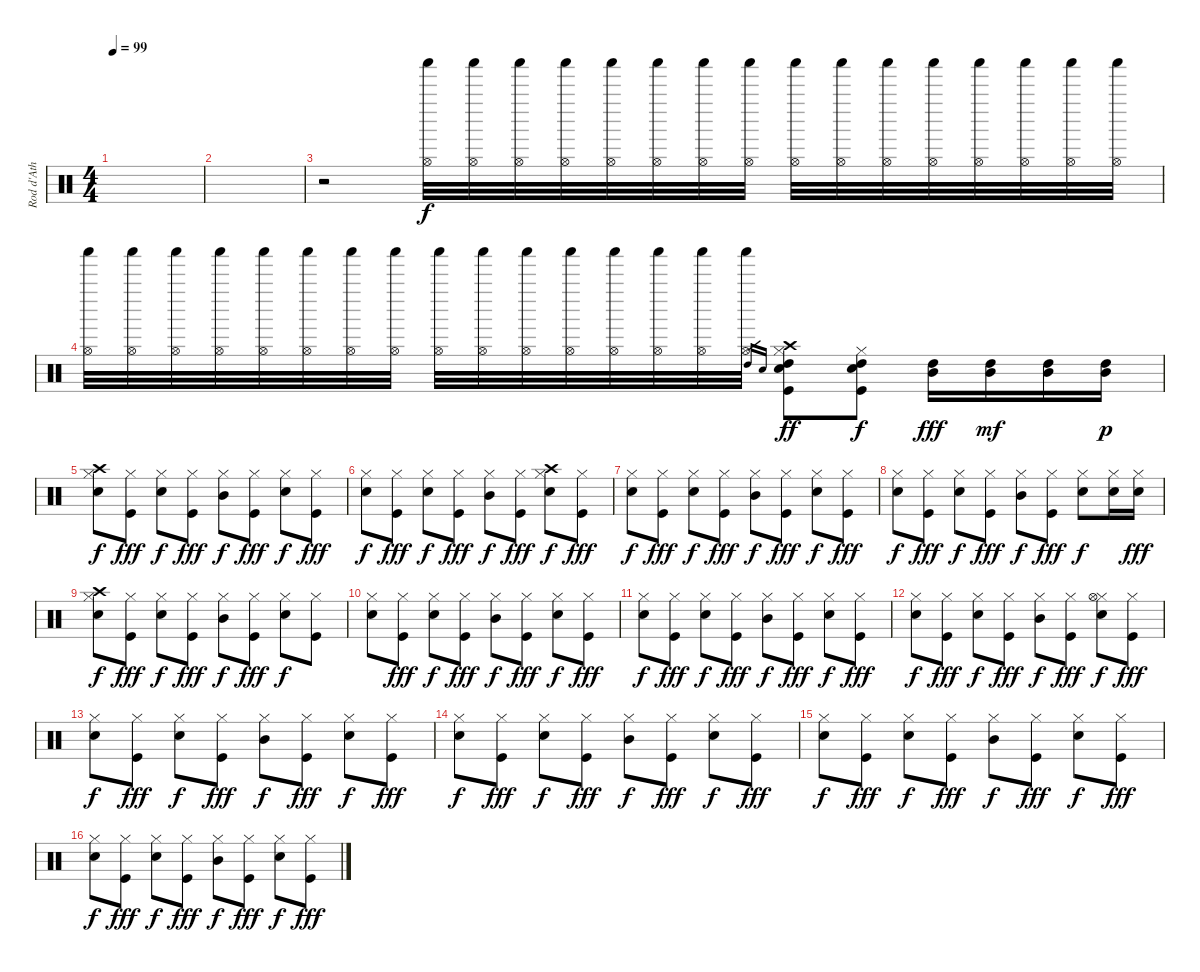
\track ("Rod d'Ath" "Rod d'Ath") {instrument percussion}
\staff {score}
\articulation defaults
\ts (4 4)
\tempo 99
\clef neutral
\ks c
|
|
r.2 ("Shaker (hit)" "Hi-Hat (open)").32{volume 1 balance 8} ("Shaker (hit)" "Hi-Hat (open)").32{volume 16 balance 0} ("Shaker (hit)" "Hi-Hat (open)").32 ("Shaker (hit)" "Hi-Hat (open)").32 ("Shaker (hit)" "Hi-Hat (open)").32 ("Shaker (hit)" "Hi-Hat (open)").32 ("Shaker (hit)" "Hi-Hat (open)").32 ("Shaker (hit)" "Hi-Hat (open)").32 ("Shaker (hit)" "Hi-Hat (open)").32 ("Shaker (hit)" "Hi-Hat (open)").32 ("Shaker (hit)" "Hi-Hat (open)").32 ("Shaker (hit)" "Hi-Hat (open)").32 ("Shaker (hit)" "Hi-Hat (open)").32 ("Shaker (hit)" "Hi-Hat (open)").32 ("Shaker (hit)" "Hi-Hat (open)").32 ("Shaker (hit)" "Hi-Hat (open)").32 |
("Shaker (hit)" "Hi-Hat (open)").32{balance 16} ("Shaker (hit)" "Hi-Hat (open)").32 ("Shaker (hit)" "Hi-Hat (open)").32 ("Shaker (hit)" "Hi-Hat (open)").32 ("Shaker (hit)" "Hi-Hat (open)").32 ("Shaker (hit)" "Hi-Hat (open)").32 ("Shaker (hit)" "Hi-Hat (open)").32 ("Shaker (hit)" "Hi-Hat (open)").32 ("Shaker (hit)" "Hi-Hat (open)").32 ("Shaker (hit)" "Hi-Hat (open)").32 ("Shaker (hit)" "Hi-Hat (open)").32 ("Shaker (hit)" "Hi-Hat (open)").32 ("Shaker (hit)" "Hi-Hat (open)").32 ("Shaker (hit)" "Hi-Hat (open)").32 ("Shaker (hit)" "Hi-Hat (open)").32 ("Shaker (hit)" "Hi-Hat (open)").32 "High Tom (hit)".16{gr} "Electric Snare (hit)".16{gr} ("Electric Snare (hit)" "Kick (hit)" "High Tom (hit)" "Crash high (hit)" "Hi-Hat (closed)").8{dy ff} ("Electric Snare (hit)" "Kick (hit)" "High Tom (hit)" "Hi-Hat (closed)").8{dy f} ("Mid Tom (hit)" "High Tom (hit)").16{dy fff} ("Mid Tom (hit)" "High Tom (hit)").16{dy mf} ("Mid Tom (hit)" "High Tom (hit)").16 ("Mid Tom (hit)" "High Tom (hit)").16{dy p} |
("Hi-Hat (closed)" "Snare (hit) 2" "Crash high (hit)").8{dy f} ("Hi-Hat (closed)" "Kick (hit)").8{dy fff} ("Hi-Hat (closed)" "Snare (hit) 2").8{dy f} ("Hi-Hat (closed)" "Kick (hit)").8{dy fff} ("Hi-Hat (closed)" "Mid Tom (hit)").8{dy f} ("Hi-Hat (closed)" "Kick (hit)").8{dy fff} ("Hi-Hat (closed)" "Snare (hit) 2").8{dy f} ("Hi-Hat (closed)" "Kick (hit)").8{dy fff} |
("Hi-Hat (closed)" "Snare (hit) 2").8{dy f} ("Hi-Hat (closed)" "Kick (hit)").8{dy fff} ("Hi-Hat (closed)" "Snare (hit) 2").8{dy f} ("Hi-Hat (closed)" "Kick (hit)").8{dy fff} ("Hi-Hat (closed)" "Mid Tom (hit)").8{dy f} ("Hi-Hat (closed)" "Kick (hit)").8{dy fff} ("Hi-Hat (closed)" "Snare (hit) 2" "Crash high (hit)").8{dy f} ("Hi-Hat (closed)" "Kick (hit)").8{dy fff} |
("Hi-Hat (closed)" "Snare (hit) 2").8{dy f} ("Hi-Hat (closed)" "Kick (hit)").8{dy fff} ("Hi-Hat (closed)" "Snare (hit) 2").8{dy f} ("Hi-Hat (closed)" "Kick (hit)").8{dy fff} ("Hi-Hat (closed)" "Mid Tom (hit)").8{dy f} ("Hi-Hat (closed)" "Kick (hit)").8{dy fff} ("Hi-Hat (closed)" "Snare (hit) 2").8{dy f} ("Hi-Hat (closed)" "Kick (hit)").8{dy fff} |
("Hi-Hat (closed)" "Snare (hit) 2").8{dy f} ("Hi-Hat (closed)" "Kick (hit)").8{dy fff} ("Hi-Hat (closed)" "Snare (hit) 2").8{dy f} ("Hi-Hat (closed)" "Kick (hit)").8{dy fff} ("Hi-Hat (closed)" "Mid Tom (hit)").8{dy f} ("Hi-Hat (closed)" "Kick (hit)").8{dy fff} ("Hi-Hat (closed)" "Snare (hit) 2").8{dy f} ("Hi-Hat (closed)" "Snare (hit) 2").16 ("Hi-Hat (closed)" "Snare (hit) 2").16{dy fff} |
("Hi-Hat (closed)" "Snare (hit) 2" "Crash high (hit)").8{dy f} ("Hi-Hat (closed)" "Kick (hit)").8{dy fff} ("Hi-Hat (closed)" "Snare (hit) 2").8{dy f} ("Hi-Hat (closed)" "Kick (hit)").8{dy fff} ("Hi-Hat (closed)" "Mid Tom (hit)").8{dy f} ("Hi-Hat (closed)" "Kick (hit)").8{dy fff} ("Hi-Hat (closed)" "Snare (hit) 2").8{dy f} ("Hi-Hat (closed)" "Kick (hit)").8 |
("Hi-Hat (closed)" "Snare (hit) 2").8 ("Hi-Hat (closed)" "Kick (hit)").8{dy fff} ("Hi-Hat (closed)" "Snare (hit) 2").8{dy f} ("Hi-Hat (closed)" "Kick (hit)").8{dy fff} ("Hi-Hat (closed)" "Mid Tom (hit)").8{dy f} ("Hi-Hat (closed)" "Kick (hit)").8{dy fff} ("Hi-Hat (closed)" "Snare (hit) 2").8{dy f} ("Hi-Hat (closed)" "Kick (hit)").8{dy fff} |
("Hi-Hat (closed)" "Snare (hit) 2").8{dy f} ("Hi-Hat (closed)" "Kick (hit)").8{dy fff} ("Hi-Hat (closed)" "Snare (hit) 2").8{dy f} ("Hi-Hat (closed)" "Kick (hit)").8{dy fff} ("Hi-Hat (closed)" "Mid Tom (hit)").8{dy f} ("Hi-Hat (closed)" "Kick (hit)").8{dy fff} ("Hi-Hat (closed)" "Snare (hit) 2").8{dy f} ("Hi-Hat (closed)" "Kick (hit)").8{dy fff} |
("Hi-Hat (closed)" "Snare (hit) 2").8{dy f} ("Hi-Hat (closed)" "Kick (hit)").8{dy fff} ("Hi-Hat (closed)" "Snare (hit) 2").8{dy f} ("Hi-Hat (closed)" "Kick (hit)").8{dy fff} ("Hi-Hat (closed)" "Mid Tom (hit)").8{dy f} ("Hi-Hat (closed)" "Kick (hit)").8{dy fff} ("Hi-Hat (closed)" "Snare (hit) 2" "Hi-Hat (open)").8{dy f} ("Hi-Hat (closed)" "Kick (hit)").8{dy fff} |
("Hi-Hat (closed)" "Snare (hit) 2").8{dy f} ("Hi-Hat (closed)" "Kick (hit)").8{dy fff} ("Hi-Hat (closed)" "Snare (hit) 2").8{dy f} ("Hi-Hat (closed)" "Kick (hit)").8{dy fff} ("Hi-Hat (closed)" "Mid Tom (hit)").8{dy f} ("Hi-Hat (closed)" "Kick (hit)").8{dy fff} ("Hi-Hat (closed)" "Snare (hit) 2").8{dy f} ("Hi-Hat (closed)" "Kick (hit)").8{dy fff} |
("Hi-Hat (closed)" "Snare (hit) 2").8{dy f} ("Hi-Hat (closed)" "Kick (hit)").8{dy fff} ("Hi-Hat (closed)" "Snare (hit) 2").8{dy f} ("Hi-Hat (closed)" "Kick (hit)").8{dy fff} ("Hi-Hat (closed)" "Mid Tom (hit)").8{dy f} ("Hi-Hat (closed)" "Kick (hit)").8{dy fff} ("Hi-Hat (closed)" "Snare (hit) 2").8{dy f} ("Hi-Hat (closed)" "Kick (hit)").8{dy fff} |
("Hi-Hat (closed)" "Snare (hit) 2").8{dy f} ("Hi-Hat (closed)" "Kick (hit)").8{dy fff} ("Hi-Hat (closed)" "Snare (hit) 2").8{dy f} ("Hi-Hat (closed)" "Kick (hit)").8{dy fff} ("Hi-Hat (closed)" "Mid Tom (hit)").8{dy f} ("Hi-Hat (closed)" "Kick (hit)").8{dy fff} ("Hi-Hat (closed)" "Snare (hit) 2").8{dy f} ("Hi-Hat (closed)" "Kick (hit)").8{dy fff} |
("Hi-Hat (closed)" "Snare (hit) 2").8{dy f} ("Hi-Hat (closed)" "Kick (hit)").8{dy fff} ("Hi-Hat (closed)" "Snare (hit) 2").8{dy f} ("Hi-Hat (closed)" "Kick (hit)").8{dy fff} ("Hi-Hat (closed)" "Mid Tom (hit)").8{dy f} ("Hi-Hat (closed)" "Kick (hit)").8{dy fff} ("Hi-Hat (closed)" "Snare (hit) 2").8{dy f} ("Hi-Hat (closed)" "Kick (hit)").8{dy fff}
